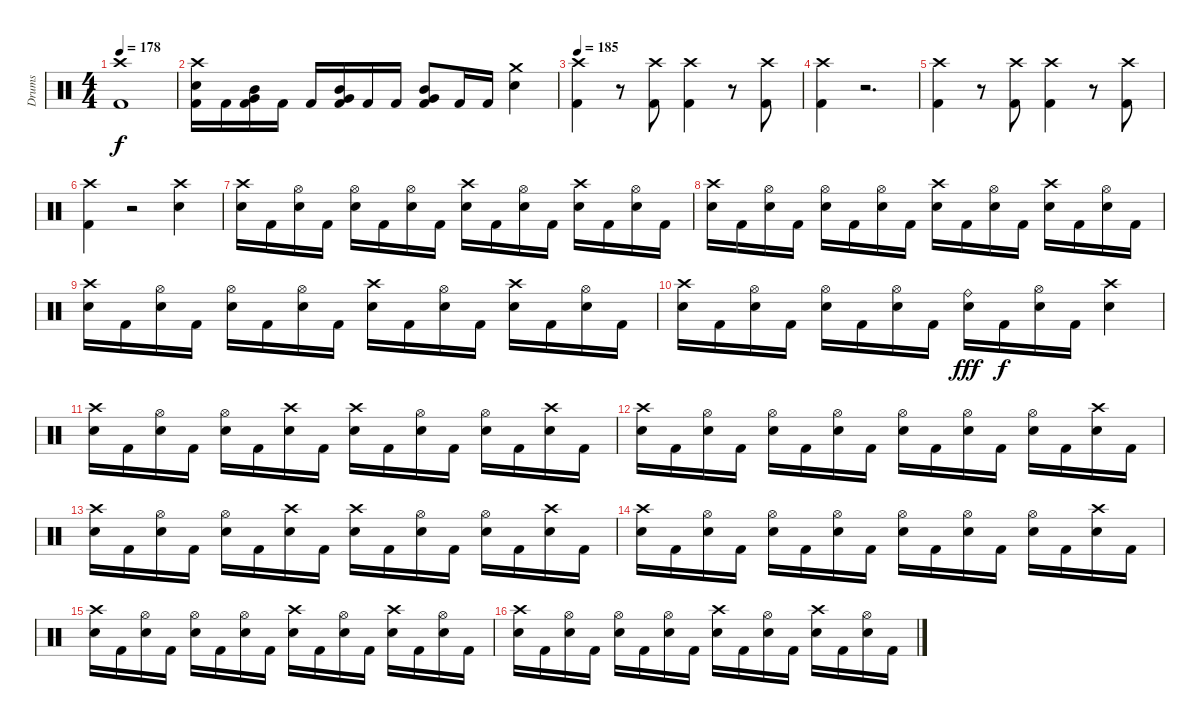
\track ("Drums" "Drums") {instrument percussion}
\staff {score}
\articulation defaults
\ts (4 4)
\tempo 178
\clef neutral
\ks c
("Crash high (hit)" "Kick (hit) 2").1{dy f} |
("Crash high (hit)" "Electric Snare (hit)" "Kick (hit) 2").16 "Kick (hit) 2".16 ("Mid Tom (hit)" "Very Low Tom (hit)" "Kick (hit) 2").16 "Kick (hit) 2".16 "Kick (hit) 2".16 ("Mid Tom (hit)" "Very Low Tom (hit)" "Kick (hit) 2").16 "Kick (hit) 2".16 "Kick (hit) 2".16 ("Mid Tom (hit)" "Very Low Tom (hit)" "Kick (hit) 2").8 "Kick (hit) 2".16 "Kick (hit) 2".16 ("Crash medium (hit)" "Electric Snare (hit)").4 |
\tempo 185
("Crash high (hit)" "Kick (hit) 2").4 r.8 ("Crash high (hit)" "Kick (hit) 2").8 ("Crash high (hit)" "Kick (hit) 2").4 r.8 ("Crash high (hit)" "Kick (hit) 2").8 |
("Crash high (hit)" "Kick (hit) 2").4 r.2{d} |
("Crash high (hit)" "Kick (hit) 2").4 r.8 ("Crash high (hit)" "Kick (hit) 2").8 ("Crash high (hit)" "Kick (hit) 2").4 r.8 ("Crash high (hit)" "Kick (hit) 2").8 |
("Crash high (hit)" "Kick (hit) 2").4 r.2 ("Crash high (hit)" "Electric Snare (hit)").4 |
("Crash high (hit)" "Electric Snare (hit)").16 "Kick (hit) 2".16 ("Hi-Hat (open)" "Electric Snare (hit)").16 "Kick (hit) 2".16 ("Hi-Hat (open)" "Electric Snare (hit)").16 "Kick (hit) 2".16 ("Hi-Hat (open)" "Electric Snare (hit)").16 "Kick (hit) 2".16 ("Crash high (hit)" "Electric Snare (hit)").16 "Kick (hit) 2".16 ("Hi-Hat (open)" "Electric Snare (hit)").16 "Kick (hit) 2".16 ("Crash high (hit)" "Electric Snare (hit)").16 "Kick (hit) 2".16 ("Hi-Hat (open)" "Electric Snare (hit)").16 "Kick (hit) 2".16 |
("Crash high (hit)" "Electric Snare (hit)").16 "Kick (hit) 2".16 ("Hi-Hat (open)" "Electric Snare (hit)").16 "Kick (hit) 2".16 ("Hi-Hat (open)" "Electric Snare (hit)").16 "Kick (hit) 2".16 ("Hi-Hat (open)" "Electric Snare (hit)").16 "Kick (hit) 2".16 ("Crash high (hit)" "Electric Snare (hit)").16 "Kick (hit) 2".16 ("Hi-Hat (open)" "Electric Snare (hit)").16 "Kick (hit) 2".16 ("Crash high (hit)" "Electric Snare (hit)").16 "Kick (hit) 2".16 ("Hi-Hat (open)" "Electric Snare (hit)").16 "Kick (hit) 2".16 |
("Crash high (hit)" "Electric Snare (hit)").16 "Kick (hit) 2".16 ("Hi-Hat (open)" "Electric Snare (hit)").16 "Kick (hit) 2".16 ("Hi-Hat (open)" "Electric Snare (hit)").16 "Kick (hit) 2".16 ("Hi-Hat (open)" "Electric Snare (hit)").16 "Kick (hit) 2".16 ("Crash high (hit)" "Electric Snare (hit)").16 "Kick (hit) 2".16 ("Hi-Hat (open)" "Electric Snare (hit)").16 "Kick (hit) 2".16 ("Crash high (hit)" "Electric Snare (hit)").16 "Kick (hit) 2".16 ("Hi-Hat (open)" "Electric Snare (hit)").16 "Kick (hit) 2".16 |
("Crash high (hit)" "Electric Snare (hit)").16 "Kick (hit) 2".16 ("Hi-Hat (open)" "Electric Snare (hit)").16 "Kick (hit) 2".16 ("Hi-Hat (open)" "Electric Snare (hit)").16 "Kick (hit) 2".16 ("Hi-Hat (open)" "Electric Snare (hit)").16 "Kick (hit) 2".16 ("Ride (bell)" "Electric Snare (hit)").16{dy fff} "Kick (hit) 2".16{dy f} ("Hi-Hat (open)" "Electric Snare (hit)").16 "Kick (hit) 2".16 ("Crash high (hit)" "Electric Snare (hit)").4 |
("Crash high (hit)" "Electric Snare (hit)").16 "Kick (hit) 2".16 ("Hi-Hat (open)" "Electric Snare (hit)").16 "Kick (hit) 2".16 ("Hi-Hat (open)" "Electric Snare (hit)").16 "Kick (hit) 2".16 ("Crash high (hit)" "Electric Snare (hit)").16 "Kick (hit) 2".16 ("Crash high (hit)" "Electric Snare (hit)").16 "Kick (hit) 2".16 ("Hi-Hat (open)" "Electric Snare (hit)").16 "Kick (hit) 2".16 ("Hi-Hat (open)" "Electric Snare (hit)").16 "Kick (hit) 2".16 ("Crash high (hit)" "Electric Snare (hit)").16 "Kick (hit) 2".16 |
("Crash high (hit)" "Electric Snare (hit)").16 "Kick (hit) 2".16 ("Hi-Hat (open)" "Electric Snare (hit)").16 "Kick (hit) 2".16 ("Hi-Hat (open)" "Electric Snare (hit)").16 "Kick (hit) 2".16 ("Hi-Hat (open)" "Electric Snare (hit)").16 "Kick (hit) 2".16 ("Hi-Hat (open)" "Electric Snare (hit)").16 "Kick (hit) 2".16 ("Hi-Hat (open)" "Electric Snare (hit)").16 "Kick (hit) 2".16 ("Hi-Hat (open)" "Electric Snare (hit)").16 "Kick (hit) 2".16 ("Crash high (hit)" "Electric Snare (hit)").16 "Kick (hit) 2".16 |
("Crash high (hit)" "Electric Snare (hit)").16 "Kick (hit) 2".16 ("Hi-Hat (open)" "Electric Snare (hit)").16 "Kick (hit) 2".16 ("Hi-Hat (open)" "Electric Snare (hit)").16 "Kick (hit) 2".16 ("Crash high (hit)" "Electric Snare (hit)").16 "Kick (hit) 2".16 ("Crash high (hit)" "Electric Snare (hit)").16 "Kick (hit) 2".16 ("Hi-Hat (open)" "Electric Snare (hit)").16 "Kick (hit) 2".16 ("Hi-Hat (open)" "Electric Snare (hit)").16 "Kick (hit) 2".16 ("Crash high (hit)" "Electric Snare (hit)").16 "Kick (hit) 2".16 |
("Crash high (hit)" "Electric Snare (hit)").16 "Kick (hit) 2".16 ("Hi-Hat (open)" "Electric Snare (hit)").16 "Kick (hit) 2".16 ("Hi-Hat (open)" "Electric Snare (hit)").16 "Kick (hit) 2".16 ("Hi-Hat (open)" "Electric Snare (hit)").16 "Kick (hit) 2".16 ("Hi-Hat (open)" "Electric Snare (hit)").16 "Kick (hit) 2".16 ("Hi-Hat (open)" "Electric Snare (hit)").16 "Kick (hit) 2".16 ("Hi-Hat (open)" "Electric Snare (hit)").16 "Kick (hit) 2".16 ("Crash high (hit)" "Electric Snare (hit)").16 "Kick (hit) 2".16 |
("Crash high (hit)" "Electric Snare (hit)").16 "Kick (hit) 2".16 ("Hi-Hat (open)" "Electric Snare (hit)").16 "Kick (hit) 2".16 ("Hi-Hat (open)" "Electric Snare (hit)").16 "Kick (hit) 2".16 ("Hi-Hat (open)" "Electric Snare (hit)").16 "Kick (hit) 2".16 ("Crash high (hit)" "Electric Snare (hit)").16 "Kick (hit) 2".16 ("Hi-Hat (open)" "Electric Snare (hit)").16 "Kick (hit) 2".16 ("Crash high (hit)" "Electric Snare (hit)").16 "Kick (hit) 2".16 ("Hi-Hat (open)" "Electric Snare (hit)").16 "Kick (hit) 2".16 |
("Crash high (hit)" "Electric Snare (hit)").16 "Kick (hit) 2".16 ("Hi-Hat (open)" "Electric Snare (hit)").16 "Kick (hit) 2".16 ("Hi-Hat (open)" "Electric Snare (hit)").16 "Kick (hit) 2".16 ("Hi-Hat (open)" "Electric Snare (hit)").16 "Kick (hit) 2".16 ("Crash high (hit)" "Electric Snare (hit)").16 "Kick (hit) 2".16 ("Hi-Hat (open)" "Electric Snare (hit)").16 "Kick (hit) 2".16 ("Crash high (hit)" "Electric Snare (hit)").16 "Kick (hit) 2".16 ("Hi-Hat (open)" "Electric Snare (hit)").16 "Kick (hit) 2".16
